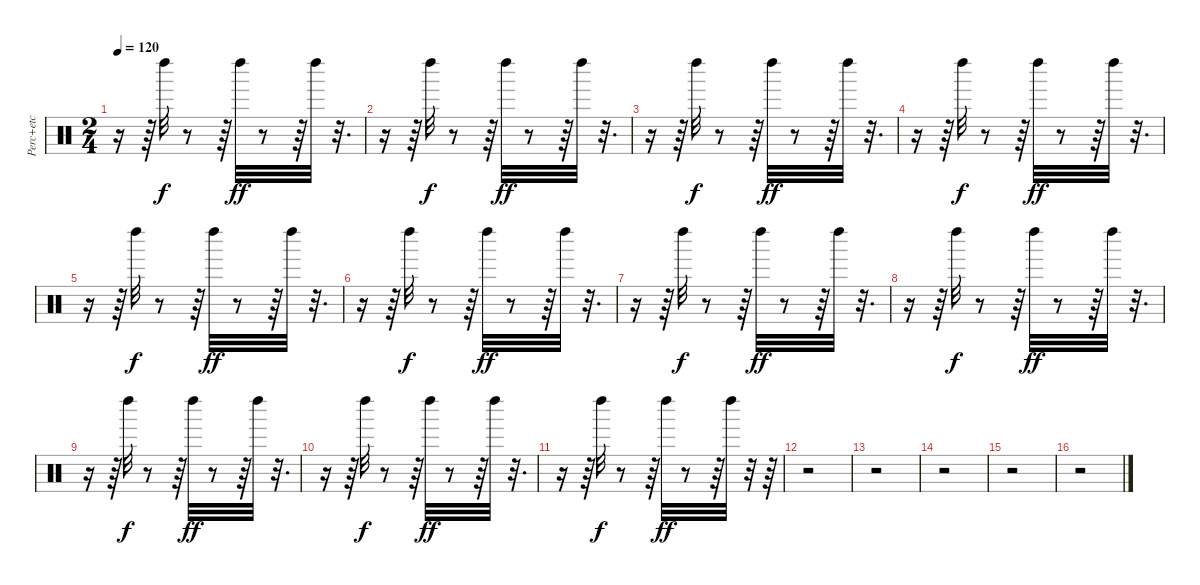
\track ("Perc+etc" "Perc+etc") {instrument percussion}
\staff {score}
\articulation defaults
\ts (2 4)
\tempo 120
\clef neutral
\ks c
r.16{dy ff} r.64 "Left Maraca (hit)".32{dy f} r.8 r.64 "Left Maraca (hit)".32{dy ff} r.8 r.64 "Left Maraca (hit)".32 r.32{d} |
r.16 r.64 "Left Maraca (hit)".32{dy f} r.8 r.64 "Left Maraca (hit)".32{dy ff} r.8 r.64 "Left Maraca (hit)".32 r.32{d} |
r.16 r.64 "Left Maraca (hit)".32{dy f} r.8 r.64 "Left Maraca (hit)".32{dy ff} r.8 r.64 "Left Maraca (hit)".32 r.32{d} |
r.16 r.64 "Left Maraca (hit)".32{dy f} r.8 r.64 "Left Maraca (hit)".32{dy ff} r.8 r.64 "Left Maraca (hit)".32 r.32{d} |
r.16 r.64 "Left Maraca (hit)".32{dy f} r.8 r.64 "Left Maraca (hit)".32{dy ff} r.8 r.64 "Left Maraca (hit)".32 r.32{d} |
r.16 r.64 "Left Maraca (hit)".32{dy f} r.8 r.64 "Left Maraca (hit)".32{dy ff} r.8 r.64 "Left Maraca (hit)".32 r.32{d} |
r.16 r.64 "Left Maraca (hit)".32{dy f} r.8 r.64 "Left Maraca (hit)".32{dy ff} r.8 r.64 "Left Maraca (hit)".32 r.32{d} |
r.16 r.64 "Left Maraca (hit)".32{dy f} r.8 r.64 "Left Maraca (hit)".32{dy ff} r.8 r.64 "Left Maraca (hit)".32 r.32{d} |
r.16 r.64 "Left Maraca (hit)".32{dy f} r.8 r.64 "Left Maraca (hit)".32{dy ff} r.8 r.64 "Left Maraca (hit)".32 r.32{d} |
r.16 r.64 "Left Maraca (hit)".32{dy f} r.8 r.64 "Left Maraca (hit)".32{dy ff} r.8 r.64 "Left Maraca (hit)".32 r.32{d} |
r.16 r.64 "Left Maraca (hit)".32{dy f} r.8 r.64 "Left Maraca (hit)".32{dy ff} r.8 r.64 "Left Maraca (hit)".32 r.32 r.64 |
r.2 |
r.2 |
r.2 |
r.2 |
r.2
